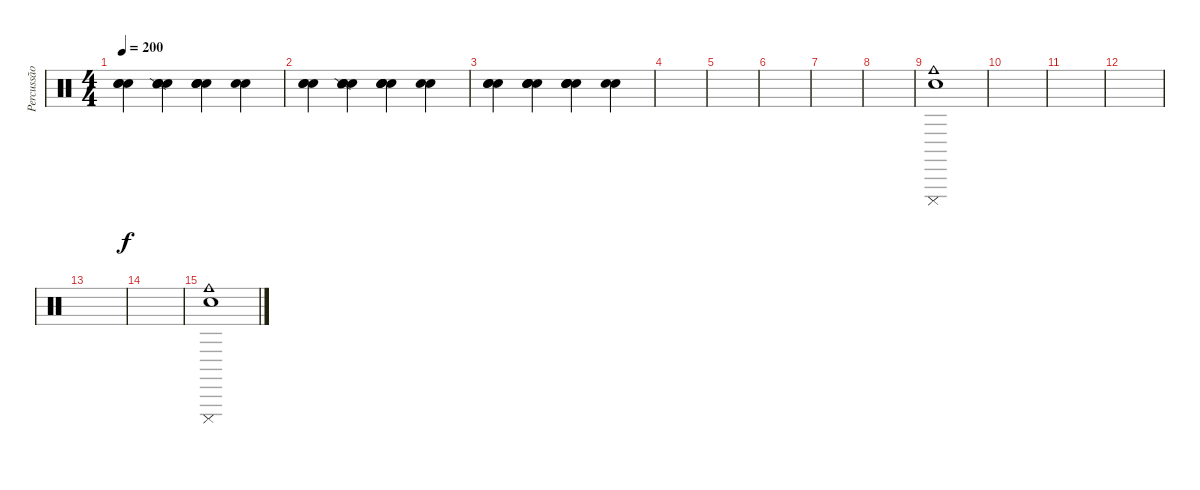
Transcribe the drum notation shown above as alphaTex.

\track ("Percussão" "Percussão") {instrument percussion}
\staff {score}
\articulation defaults
\ts (4 4)
\tempo 200
\clef neutral
\ks c
("Snare (hit)" "Snare (hit)" "Snare (hit)").4{dy f} ("Snare (hit)" "Snare (hit)" "Snare (side stick) 2" "Snare (hit)").4 ("Snare (hit)" "Snare (hit)" "Snare (hit)" "Snare (hit)").4 ("Snare (hit)" "Snare (hit)").4 |
("Metronome (bell)" "Snare (hit)" "Snare (hit)").4 ("Snare (hit)" "Snare (hit)" "Snare (side stick) 2" "Snare (hit)").4 ("Snare (hit)" "Snare (hit)" "Snare (hit)" "Snare (hit)").4 ("Snare (hit)" "Snare (hit)").4 |
("Snare (hit)" "Snare (hit)" "Snare (hit)").4 ("Snare (hit)" "Snare (hit)" "Snare (hit)" "Snare (hit)").4 ("Snare (hit)" "Snare (hit)" "Snare (hit)" "Snare (hit)").4 ("Snare (hit)" "Snare (hit)").4 |
|
|
|
|
|
("Snare (hit)" "Cuica (mute)" "Cowbell medium (hit)").1 |
|
|
|
|
|
("Snare (hit)" "Cuica (mute)" "Cowbell medium (hit)").1
